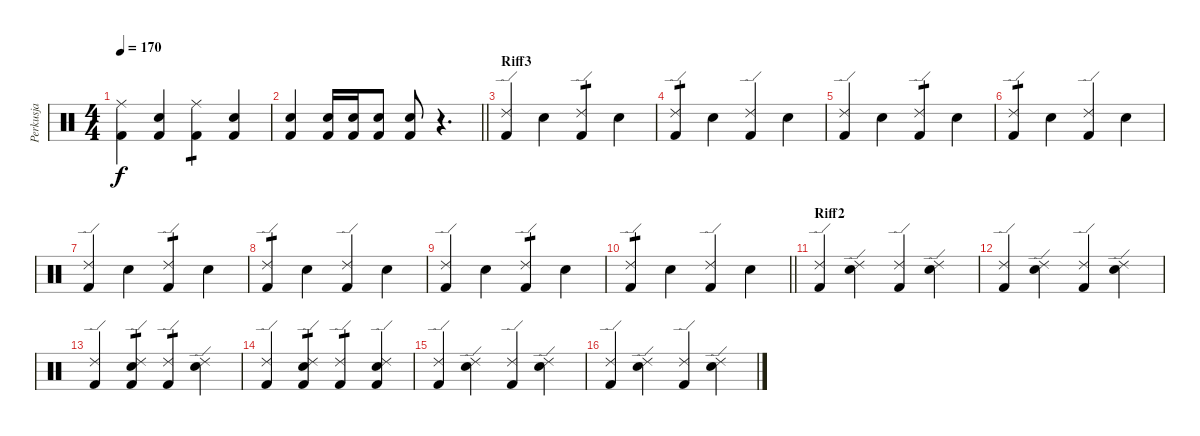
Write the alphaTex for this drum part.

\track ("Perkusja" "Perkusja") {instrument percussion}
\staff {score}
\articulation defaults
\ts (4 4)
\tempo 170
\clef neutral
\ks c
("Ride (middle)" "Kick (hit) 2").4{dy f} ("Electric Snare (hit)" "Kick (hit) 2").4 ("Ride (middle)" "Kick (hit) 2").4{tp 1} ("Electric Snare (hit)" "Kick (hit) 2").4 |
\barLineRight lightlight
("Electric Snare (hit)" "Kick (hit) 2").4 ("Electric Snare (hit)" "Kick (hit) 2").16 ("Electric Snare (hit)" "Kick (hit) 2").16 ("Electric Snare (hit)" "Kick (hit) 2").8 ("Electric Snare (hit)" "Kick (hit) 2").8 r.4{d} |
\section ("" "Riff3")
("Ride (edge) 2" "Kick (hit) 2").4 "Electric Snare (hit)".4 ("Ride (edge) 2" "Kick (hit) 2").4{tp 1} "Electric Snare (hit)".4 |
("Ride (edge) 2" "Kick (hit) 2").4{tp 1} "Electric Snare (hit)".4 ("Ride (edge) 2" "Kick (hit) 2").4 "Electric Snare (hit)".4 |
("Ride (edge) 2" "Kick (hit) 2").4 "Electric Snare (hit)".4 ("Ride (edge) 2" "Kick (hit) 2").4{tp 1} "Electric Snare (hit)".4 |
("Ride (edge) 2" "Kick (hit) 2").4{tp 1} "Electric Snare (hit)".4 ("Ride (edge) 2" "Kick (hit) 2").4 "Electric Snare (hit)".4 |
("Ride (edge) 2" "Kick (hit) 2").4 "Electric Snare (hit)".4 ("Ride (edge) 2" "Kick (hit) 2").4{tp 1} "Electric Snare (hit)".4 |
("Ride (edge) 2" "Kick (hit) 2").4{tp 1} "Electric Snare (hit)".4 ("Ride (edge) 2" "Kick (hit) 2").4 "Electric Snare (hit)".4 |
("Ride (edge) 2" "Kick (hit) 2").4 "Electric Snare (hit)".4 ("Ride (edge) 2" "Kick (hit) 2").4{tp 1} "Electric Snare (hit)".4 |
\barLineRight lightlight
("Ride (edge) 2" "Kick (hit) 2").4{tp 1} "Electric Snare (hit)".4 ("Ride (edge) 2" "Kick (hit) 2").4 "Electric Snare (hit)".4 |
\section ("" "Riff2")
("Ride (edge) 2" "Kick (hit) 2").4 ("Ride (edge) 2" "Electric Snare (hit)").4 ("Ride (edge) 2" "Kick (hit) 2").4 ("Ride (edge) 2" "Electric Snare (hit)").4 |
("Ride (edge) 2" "Kick (hit) 2").4 ("Ride (edge) 2" "Electric Snare (hit)").4 ("Ride (edge) 2" "Kick (hit) 2").4 ("Ride (edge) 2" "Electric Snare (hit)").4 |
("Ride (edge) 2" "Kick (hit) 2").4 ("Ride (edge) 2" "Electric Snare (hit)" "Kick (hit) 2").4{tp 1} ("Ride (edge) 2" "Kick (hit) 2").4{tp 1} ("Ride (edge) 2" "Electric Snare (hit)").4 |
("Ride (edge) 2" "Kick (hit) 2").4 ("Ride (edge) 2" "Electric Snare (hit)" "Kick (hit) 2").4{tp 1} ("Ride (edge) 2" "Kick (hit) 2").4{tp 1} ("Ride (edge) 2" "Electric Snare (hit)" "Kick (hit) 2").4 |
("Ride (edge) 2" "Kick (hit) 2").4 ("Ride (edge) 2" "Electric Snare (hit)").4 ("Ride (edge) 2" "Kick (hit) 2").4 ("Ride (edge) 2" "Electric Snare (hit)").4 |
("Ride (edge) 2" "Kick (hit) 2").4 ("Ride (edge) 2" "Electric Snare (hit)").4 ("Ride (edge) 2" "Kick (hit) 2").4 ("Ride (edge) 2" "Electric Snare (hit)").4
